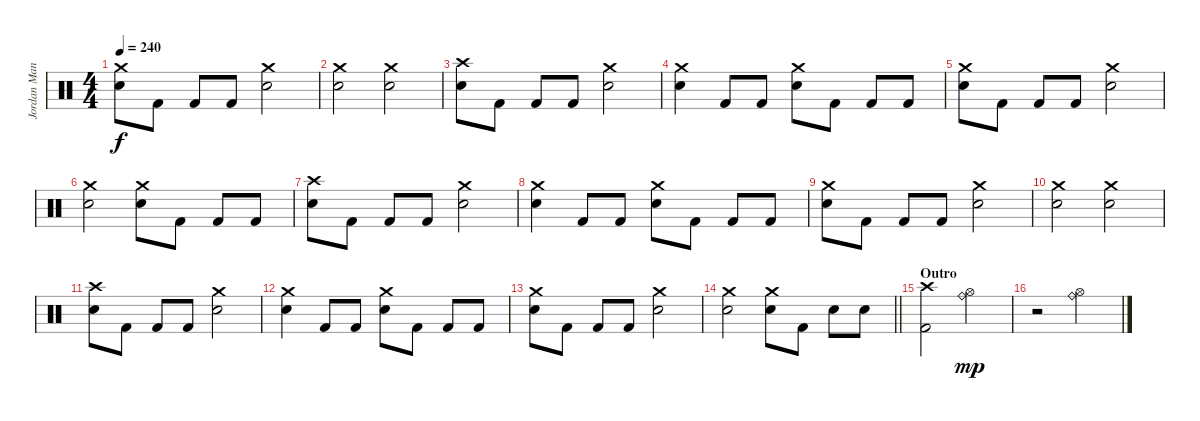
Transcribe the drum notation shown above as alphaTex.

\track ("Jordan Mancino" "Jordan Man") {instrument percussion}
\staff {score}
\articulation defaults
\ts (4 4)
\tempo 240
\clef neutral
\ks c
("Crash medium (hit)" "Electric Snare (hit)").8{dy f} "Kick (hit) 2".8 "Kick (hit) 2".8 "Kick (hit) 2".8 ("Crash medium (hit)" "Electric Snare (hit)").2 |
("Crash medium (hit)" "Electric Snare (hit)").2 ("Crash medium (hit)" "Electric Snare (hit)").2 |
("Crash high (hit)" "Electric Snare (hit)").8 "Kick (hit) 2".8 "Kick (hit) 2".8 "Kick (hit) 2".8 ("Crash medium (hit)" "Electric Snare (hit)").2 |
("Crash medium (hit)" "Electric Snare (hit)").4 "Kick (hit) 2".8 "Kick (hit) 2".8 ("Crash medium (hit)" "Electric Snare (hit)").8 "Kick (hit) 2".8 "Kick (hit) 2".8 "Kick (hit) 2".8 |
("Crash medium (hit)" "Electric Snare (hit)").8 "Kick (hit) 2".8 "Kick (hit) 2".8 "Kick (hit) 2".8 ("Crash medium (hit)" "Electric Snare (hit)").2 |
("Crash medium (hit)" "Electric Snare (hit)").2 ("Crash medium (hit)" "Electric Snare (hit)").8 "Kick (hit) 2".8 "Kick (hit) 2".8 "Kick (hit) 2".8 |
("Crash high (hit)" "Electric Snare (hit)").8 "Kick (hit) 2".8 "Kick (hit) 2".8 "Kick (hit) 2".8 ("Crash medium (hit)" "Electric Snare (hit)").2 |
("Crash medium (hit)" "Electric Snare (hit)").4 "Kick (hit) 2".8 "Kick (hit) 2".8 ("Crash medium (hit)" "Electric Snare (hit)").8 "Kick (hit) 2".8 "Kick (hit) 2".8 "Kick (hit) 2".8 |
("Crash medium (hit)" "Electric Snare (hit)").8 "Kick (hit) 2".8 "Kick (hit) 2".8 "Kick (hit) 2".8 ("Crash medium (hit)" "Electric Snare (hit)").2 |
("Crash medium (hit)" "Electric Snare (hit)").2 ("Crash medium (hit)" "Electric Snare (hit)").2 |
("Crash high (hit)" "Electric Snare (hit)").8 "Kick (hit) 2".8 "Kick (hit) 2".8 "Kick (hit) 2".8 ("Crash medium (hit)" "Electric Snare (hit)").2 |
("Crash medium (hit)" "Electric Snare (hit)").4 "Kick (hit) 2".8 "Kick (hit) 2".8 ("Crash medium (hit)" "Electric Snare (hit)").8 "Kick (hit) 2".8 "Kick (hit) 2".8 "Kick (hit) 2".8 |
("Crash medium (hit)" "Electric Snare (hit)").8 "Kick (hit) 2".8 "Kick (hit) 2".8 "Kick (hit) 2".8 ("Crash medium (hit)" "Electric Snare (hit)").2 |
\barLineRight lightlight
("Crash medium (hit)" "Electric Snare (hit)").2 ("Crash medium (hit)" "Electric Snare (hit)").8 "Kick (hit) 2".8 "Electric Snare (hit)".8 "Electric Snare (hit)".8 |
\section ("" "Outro")
("Crash high (hit)" "Kick (hit) 2").2 ("Ride (bell)" "Hi-Hat (open)").2{dy mp} |
r.2 ("Ride (bell)" "Hi-Hat (open)").2
